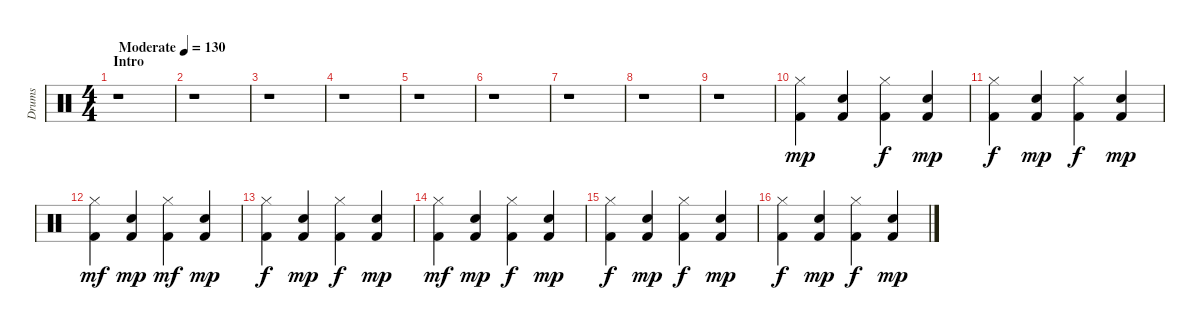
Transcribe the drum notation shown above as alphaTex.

\track ("Drums" "Drums") {instrument percussion}
\staff {score}
\articulation defaults
\ts (4 4)
\section ("" "Intro")
\tempo (130 "Moderate")
\clef neutral
\ks c
r.1{dy mp} |
r.1 |
r.1 |
r.1 |
r.1 |
r.1 |
r.1 |
r.1 |
r.1 |
("Kick (hit) 2" "Hi-Hat (closed)").4 ("Kick (hit) 2" "Snare (hit) 2").4 ("Kick (hit) 2" "Hi-Hat (closed)").4{dy f} ("Kick (hit) 2" "Snare (hit) 2").4{dy mp} |
("Kick (hit) 2" "Hi-Hat (closed)").4{dy f} ("Kick (hit) 2" "Snare (hit) 2").4{dy mp} ("Kick (hit) 2" "Hi-Hat (closed)").4{dy f} ("Kick (hit) 2" "Snare (hit) 2").4{dy mp} |
("Kick (hit) 2" "Hi-Hat (closed)").4{dy mf} ("Kick (hit) 2" "Snare (hit) 2").4{dy mp} ("Kick (hit) 2" "Hi-Hat (closed)").4{dy mf} ("Kick (hit) 2" "Snare (hit) 2").4{dy mp} |
("Kick (hit) 2" "Hi-Hat (closed)").4{dy f} ("Kick (hit) 2" "Snare (hit) 2").4{dy mp} ("Kick (hit) 2" "Hi-Hat (closed)").4{dy f} ("Kick (hit) 2" "Snare (hit) 2").4{dy mp} |
("Kick (hit) 2" "Hi-Hat (closed)").4{dy mf} ("Kick (hit) 2" "Snare (hit) 2").4{dy mp} ("Kick (hit) 2" "Hi-Hat (closed)").4{dy f} ("Kick (hit) 2" "Snare (hit) 2").4{dy mp} |
("Kick (hit) 2" "Hi-Hat (closed)").4{dy f} ("Kick (hit) 2" "Snare (hit) 2").4{dy mp} ("Kick (hit) 2" "Hi-Hat (closed)").4{dy f} ("Kick (hit) 2" "Snare (hit) 2").4{dy mp} |
("Kick (hit) 2" "Hi-Hat (closed)").4{dy f} ("Kick (hit) 2" "Snare (hit) 2").4{dy mp} ("Kick (hit) 2" "Hi-Hat (closed)").4{dy f} ("Kick (hit) 2" "Snare (hit) 2").4{dy mp}
